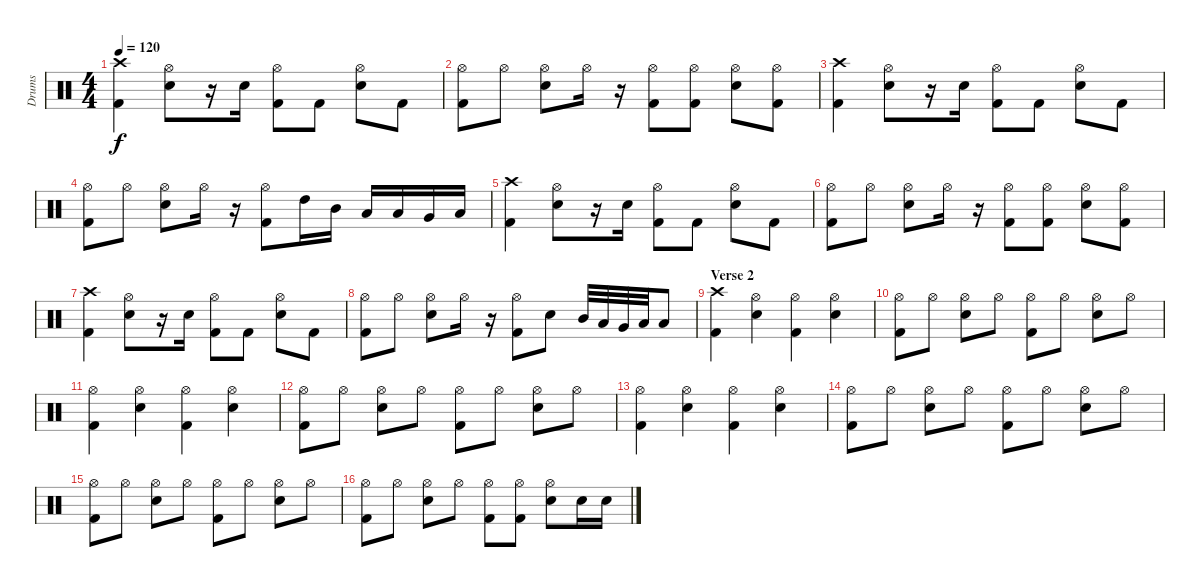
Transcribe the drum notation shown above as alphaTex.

\track ("Drums" "Drums") {instrument percussion}
\staff {score}
\articulation defaults
\ts (4 4)
\tempo 120
\clef neutral
\ks c
("Crash high (hit)" "Kick (hit) 2").4{dy f} ("Hi-Hat (open)" "Snare (hit) 2").8 r.16 "Snare (hit) 2".16 ("Hi-Hat (open)" "Kick (hit) 2").8 "Kick (hit) 2".8 ("Hi-Hat (open)" "Snare (hit) 2").8 "Kick (hit) 2".8 |
("Hi-Hat (open)" "Kick (hit) 2").8 "Hi-Hat (open)".8 ("Hi-Hat (open)" "Snare (hit) 2").8 "Hi-Hat (open)".16 r.16 ("Hi-Hat (open)" "Kick (hit) 2").8 ("Hi-Hat (open)" "Kick (hit) 2").8 ("Hi-Hat (open)" "Snare (hit) 2").8 ("Hi-Hat (open)" "Kick (hit) 2").8 |
("Crash high (hit)" "Kick (hit) 2").4 ("Hi-Hat (open)" "Snare (hit) 2").8 r.16 "Snare (hit) 2".16 ("Hi-Hat (open)" "Kick (hit) 2").8 "Kick (hit) 2".8 ("Hi-Hat (open)" "Snare (hit) 2").8 "Kick (hit) 2".8 |
("Hi-Hat (open)" "Kick (hit) 2").8 "Hi-Hat (open)".8 ("Hi-Hat (open)" "Snare (hit) 2").8 "Hi-Hat (open)".16 r.16 ("Hi-Hat (open)" "Kick (hit) 2").8 "High Tom (hit)".16 "Mid Tom (hit)".16 "Low Tom (hit)".16 "Low Tom (hit)".16 "Very Low Tom (hit)".16 "Low Floor Tom (hit)".16 |
("Crash high (hit)" "Kick (hit) 2").4 ("Hi-Hat (open)" "Snare (hit) 2").8 r.16 "Snare (hit) 2".16 ("Hi-Hat (open)" "Kick (hit) 2").8 "Kick (hit) 2".8 ("Hi-Hat (open)" "Snare (hit) 2").8 "Kick (hit) 2".8 |
("Hi-Hat (open)" "Kick (hit) 2").8 "Hi-Hat (open)".8 ("Hi-Hat (open)" "Snare (hit) 2").8 "Hi-Hat (open)".16 r.16 ("Hi-Hat (open)" "Kick (hit) 2").8 ("Hi-Hat (open)" "Kick (hit) 2").8 ("Hi-Hat (open)" "Snare (hit) 2").8 ("Hi-Hat (open)" "Kick (hit) 2").8 |
("Crash high (hit)" "Kick (hit) 2").4 ("Hi-Hat (open)" "Snare (hit) 2").8 r.16 "Snare (hit) 2".16 ("Hi-Hat (open)" "Kick (hit) 2").8 "Kick (hit) 2".8 ("Hi-Hat (open)" "Snare (hit) 2").8 "Kick (hit) 2".8 |
("Hi-Hat (open)" "Kick (hit) 2").8 "Hi-Hat (open)".8 ("Hi-Hat (open)" "Snare (hit) 2").8 "Hi-Hat (open)".16 r.16 ("Hi-Hat (open)" "Kick (hit) 2").8 "Snare (hit) 2".8 "Mid Tom (hit)".32 "Low Tom (hit)".32 "Very Low Tom (hit)".32 "Low Floor Tom (hit)".32 "Low Floor Tom (hit)".8 |
\section ("" "Verse 2")
("Crash high (hit)" "Kick (hit) 2").4 ("Hi-Hat (open)" "Snare (hit) 2").4 ("Hi-Hat (open)" "Kick (hit) 2").4 ("Hi-Hat (open)" "Snare (hit) 2").4 |
("Hi-Hat (open)" "Kick (hit) 2").8 "Hi-Hat (open)".8 ("Hi-Hat (open)" "Snare (hit) 2").8 "Hi-Hat (open)".8 ("Hi-Hat (open)" "Kick (hit) 2").8 "Hi-Hat (open)".8 ("Hi-Hat (open)" "Snare (hit) 2").8 "Hi-Hat (open)".8 |
("Hi-Hat (open)" "Kick (hit) 2").4 ("Hi-Hat (open)" "Snare (hit) 2").4 ("Hi-Hat (open)" "Kick (hit) 2").4 ("Hi-Hat (open)" "Snare (hit) 2").4 |
("Hi-Hat (open)" "Kick (hit) 2").8 "Hi-Hat (open)".8 ("Hi-Hat (open)" "Snare (hit) 2").8 "Hi-Hat (open)".8 ("Hi-Hat (open)" "Kick (hit) 2").8 "Hi-Hat (open)".8 ("Hi-Hat (open)" "Snare (hit) 2").8 "Hi-Hat (open)".8 |
("Hi-Hat (open)" "Kick (hit) 2").4 ("Hi-Hat (open)" "Snare (hit) 2").4 ("Hi-Hat (open)" "Kick (hit) 2").4 ("Hi-Hat (open)" "Snare (hit) 2").4 |
("Hi-Hat (open)" "Kick (hit) 2").8 "Hi-Hat (open)".8 ("Hi-Hat (open)" "Snare (hit) 2").8 "Hi-Hat (open)".8 ("Hi-Hat (open)" "Kick (hit) 2").8 "Hi-Hat (open)".8 ("Hi-Hat (open)" "Snare (hit) 2").8 "Hi-Hat (open)".8 |
("Hi-Hat (open)" "Kick (hit) 2").8 "Hi-Hat (open)".8 ("Hi-Hat (open)" "Snare (hit) 2").8 "Hi-Hat (open)".8 ("Hi-Hat (open)" "Kick (hit) 2").8 "Hi-Hat (open)".8 ("Hi-Hat (open)" "Snare (hit) 2").8 "Hi-Hat (open)".8 |
("Hi-Hat (open)" "Kick (hit) 2").8 "Hi-Hat (open)".8 ("Hi-Hat (open)" "Snare (hit) 2").8 "Hi-Hat (open)".8 ("Hi-Hat (open)" "Kick (hit) 2").8 ("Hi-Hat (open)" "Kick (hit) 2").8 ("Hi-Hat (open)" "Snare (hit) 2").8 "Snare (hit) 2".16 "Snare (hit) 2".16
